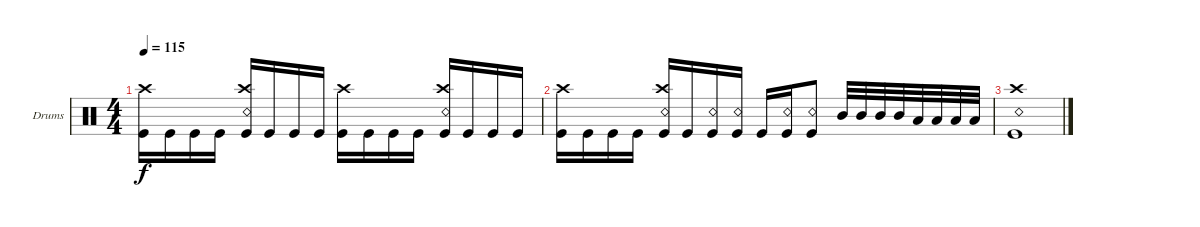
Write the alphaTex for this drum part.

\bracketExtendMode groupsimilarinstruments
\firstSystemTrackNameOrientation horizontal
\otherSystemsTrackNameOrientation horizontal
\track ("Drumkit" "Drums") {instrument percussion}
\staff {score}
\articulation defaults
\ts (4 4)
\tempo 115
\clef neutral
\ks c
("Kick (hit)" "Crash high (hit)").16{dy f} "Kick (hit)".16 "Kick (hit)".16 "Kick (hit)".16 ("Kick (hit)" "Snare (rim shot)" "Crash high (hit)").16 "Kick (hit)".16 "Kick (hit)".16 "Kick (hit)".16 ("Kick (hit)" "Crash high (hit)").16 "Kick (hit)".16 "Kick (hit)".16 "Kick (hit)".16 ("Kick (hit)" "Snare (rim shot)" "Crash high (hit)").16 "Kick (hit)".16 "Kick (hit)".16 "Kick (hit)".16 |
("Kick (hit)" "Crash high (hit)").16 "Kick (hit)".16 "Kick (hit)".16 "Kick (hit)".16 ("Kick (hit)" "Crash high (hit)" "Snare (rim shot)").16 "Kick (hit)".16 ("Kick (hit)" "Snare (rim shot)").16 ("Kick (hit)" "Snare (rim shot)").16 "Kick (hit)".16 ("Kick (hit)" "Snare (rim shot)").16 ("Kick (hit)" "Snare (rim shot)").8 "Mid Tom (hit)".32 "Mid Tom (hit)".32 "Mid Tom (hit)".32 "Mid Tom (hit)".32 "Low Tom (hit)".32 "Low Tom (hit)".32 "Low Tom (hit)".32 "Low Tom (hit)".32 |
("Snare (rim shot)" "Crash high (hit)" "Kick (hit)").1
